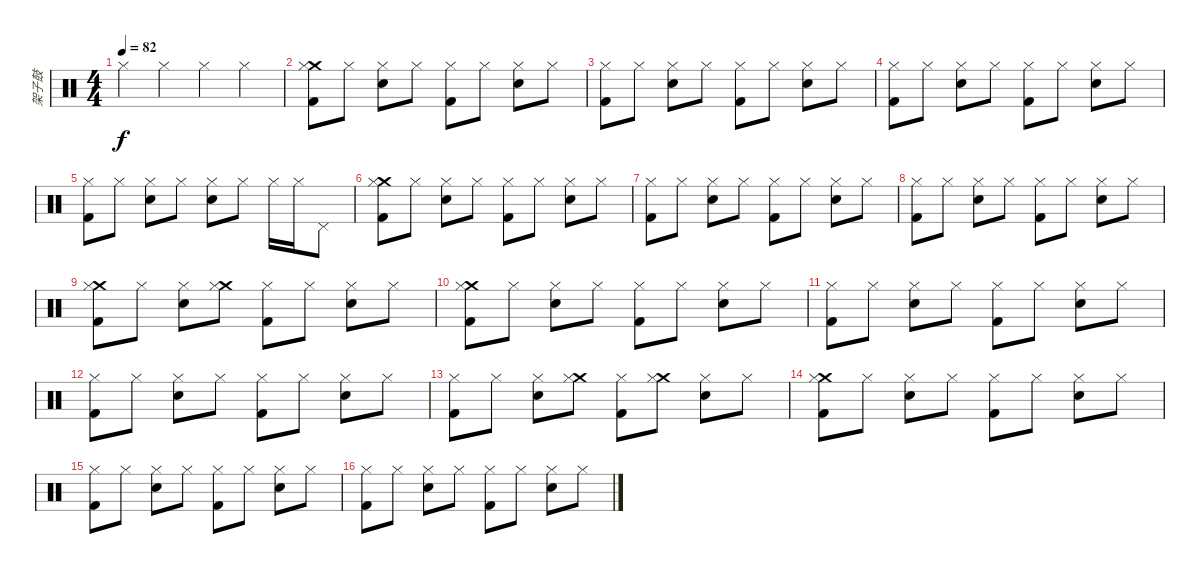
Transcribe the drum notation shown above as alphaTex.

\track ("架子鼓" "架子鼓") {instrument percussion}
\staff {score}
\articulation defaults
\ts (4 4)
\tempo 82
\clef neutral
\ks c "Hi-Hat (closed)".4{dy f} "Hi-Hat (closed)".4 "Hi-Hat (closed)".4 "Hi-Hat (closed)".4
|
("Crash medium (hit)" "Hi-Hat (closed)" "Kick (hit) 2").8 "Hi-Hat (closed)".8 ("Hi-Hat (closed)" "Snare (hit) 2").8 "Hi-Hat (closed)".8 ("Hi-Hat (closed)" "Kick (hit) 2").8 "Hi-Hat (closed)".8 ("Hi-Hat (closed)" "Snare (hit) 2").8 "Hi-Hat (closed)".8 |
("Hi-Hat (closed)" "Kick (hit) 2").8 "Hi-Hat (closed)".8 ("Hi-Hat (closed)" "Snare (hit) 2").8 "Hi-Hat (closed)".8 ("Hi-Hat (closed)" "Kick (hit) 2").8 "Hi-Hat (closed)".8 ("Hi-Hat (closed)" "Snare (hit) 2").8 "Hi-Hat (closed)".8 |
("Hi-Hat (closed)" "Kick (hit) 2").8 "Hi-Hat (closed)".8 ("Hi-Hat (closed)" "Snare (hit) 2").8 "Hi-Hat (closed)".8 ("Hi-Hat (closed)" "Kick (hit) 2").8 "Hi-Hat (closed)".8 ("Hi-Hat (closed)" "Snare (hit) 2").8 "Hi-Hat (closed)".8 |
("Hi-Hat (closed)" "Kick (hit) 2").8 "Hi-Hat (closed)".8 ("Hi-Hat (closed)" "Snare (hit) 2").8 "Hi-Hat (closed)".8 ("Hi-Hat (closed)" "Snare (hit) 2").8 "Hi-Hat (closed)".8 "Hi-Hat (closed)".16 "Hi-Hat (closed)".16 "Pedal Hi-Hat (hit)".8 |
("Crash medium (hit)" "Hi-Hat (closed)" "Kick (hit) 2").8 "Hi-Hat (closed)".8 ("Hi-Hat (closed)" "Snare (hit) 2").8 "Hi-Hat (closed)".8 ("Hi-Hat (closed)" "Kick (hit) 2").8 "Hi-Hat (closed)".8 ("Hi-Hat (closed)" "Snare (hit) 2").8 "Hi-Hat (closed)".8 |
("Hi-Hat (closed)" "Kick (hit) 2").8 "Hi-Hat (closed)".8 ("Hi-Hat (closed)" "Snare (hit) 2").8 "Hi-Hat (closed)".8 ("Hi-Hat (closed)" "Kick (hit) 2").8 "Hi-Hat (closed)".8 ("Hi-Hat (closed)" "Snare (hit) 2").8 "Hi-Hat (closed)".8 |
("Hi-Hat (closed)" "Kick (hit) 2").8 "Hi-Hat (closed)".8 ("Hi-Hat (closed)" "Snare (hit) 2").8 "Hi-Hat (closed)".8 ("Hi-Hat (closed)" "Kick (hit) 2").8 "Hi-Hat (closed)".8 ("Hi-Hat (closed)" "Snare (hit) 2").8 "Hi-Hat (closed)".8 |
("Crash medium (hit)" "Hi-Hat (closed)" "Kick (hit) 2").8 "Hi-Hat (closed)".8 ("Hi-Hat (closed)" "Snare (hit) 2").8 ("Crash medium (hit)" "Hi-Hat (closed)").8 ("Hi-Hat (closed)" "Kick (hit) 2").8 "Hi-Hat (closed)".8 ("Hi-Hat (closed)" "Snare (hit) 2").8 "Hi-Hat (closed)".8 |
("Crash medium (hit)" "Hi-Hat (closed)" "Kick (hit) 2").8 "Hi-Hat (closed)".8 ("Hi-Hat (closed)" "Snare (hit) 2").8 "Hi-Hat (closed)".8 ("Hi-Hat (closed)" "Kick (hit) 2").8 "Hi-Hat (closed)".8 ("Hi-Hat (closed)" "Snare (hit) 2").8 "Hi-Hat (closed)".8 |
("Hi-Hat (closed)" "Kick (hit) 2").8 "Hi-Hat (closed)".8 ("Hi-Hat (closed)" "Snare (hit) 2").8 "Hi-Hat (closed)".8 ("Hi-Hat (closed)" "Kick (hit) 2").8 "Hi-Hat (closed)".8 ("Hi-Hat (closed)" "Snare (hit) 2").8 "Hi-Hat (closed)".8 |
("Hi-Hat (closed)" "Kick (hit) 2").8 "Hi-Hat (closed)".8 ("Hi-Hat (closed)" "Snare (hit) 2").8 "Hi-Hat (closed)".8 ("Hi-Hat (closed)" "Kick (hit) 2").8 "Hi-Hat (closed)".8 ("Hi-Hat (closed)" "Snare (hit) 2").8 "Hi-Hat (closed)".8 |
("Hi-Hat (closed)" "Kick (hit) 2").8 "Hi-Hat (closed)".8 ("Hi-Hat (closed)" "Snare (hit) 2").8 ("Crash medium (hit)" "Hi-Hat (closed)").8 ("Hi-Hat (closed)" "Kick (hit) 2").8 ("Crash medium (hit)" "Hi-Hat (closed)").8 ("Hi-Hat (closed)" "Snare (hit) 2").8 "Hi-Hat (closed)".8 |
("Crash medium (hit)" "Hi-Hat (closed)" "Kick (hit) 2").8 "Hi-Hat (closed)".8 ("Hi-Hat (closed)" "Snare (hit) 2").8 "Hi-Hat (closed)".8 ("Hi-Hat (closed)" "Kick (hit) 2").8 "Hi-Hat (closed)".8 ("Hi-Hat (closed)" "Snare (hit) 2").8 "Hi-Hat (closed)".8 |
("Hi-Hat (closed)" "Kick (hit) 2").8 "Hi-Hat (closed)".8 ("Hi-Hat (closed)" "Snare (hit) 2").8 "Hi-Hat (closed)".8 ("Hi-Hat (closed)" "Kick (hit) 2").8 "Hi-Hat (closed)".8 ("Hi-Hat (closed)" "Snare (hit) 2").8 "Hi-Hat (closed)".8 |
("Hi-Hat (closed)" "Kick (hit) 2").8 "Hi-Hat (closed)".8 ("Hi-Hat (closed)" "Snare (hit) 2").8 "Hi-Hat (closed)".8 ("Hi-Hat (closed)" "Kick (hit) 2").8 "Hi-Hat (closed)".8 ("Hi-Hat (closed)" "Snare (hit) 2").8 "Hi-Hat (closed)".8
